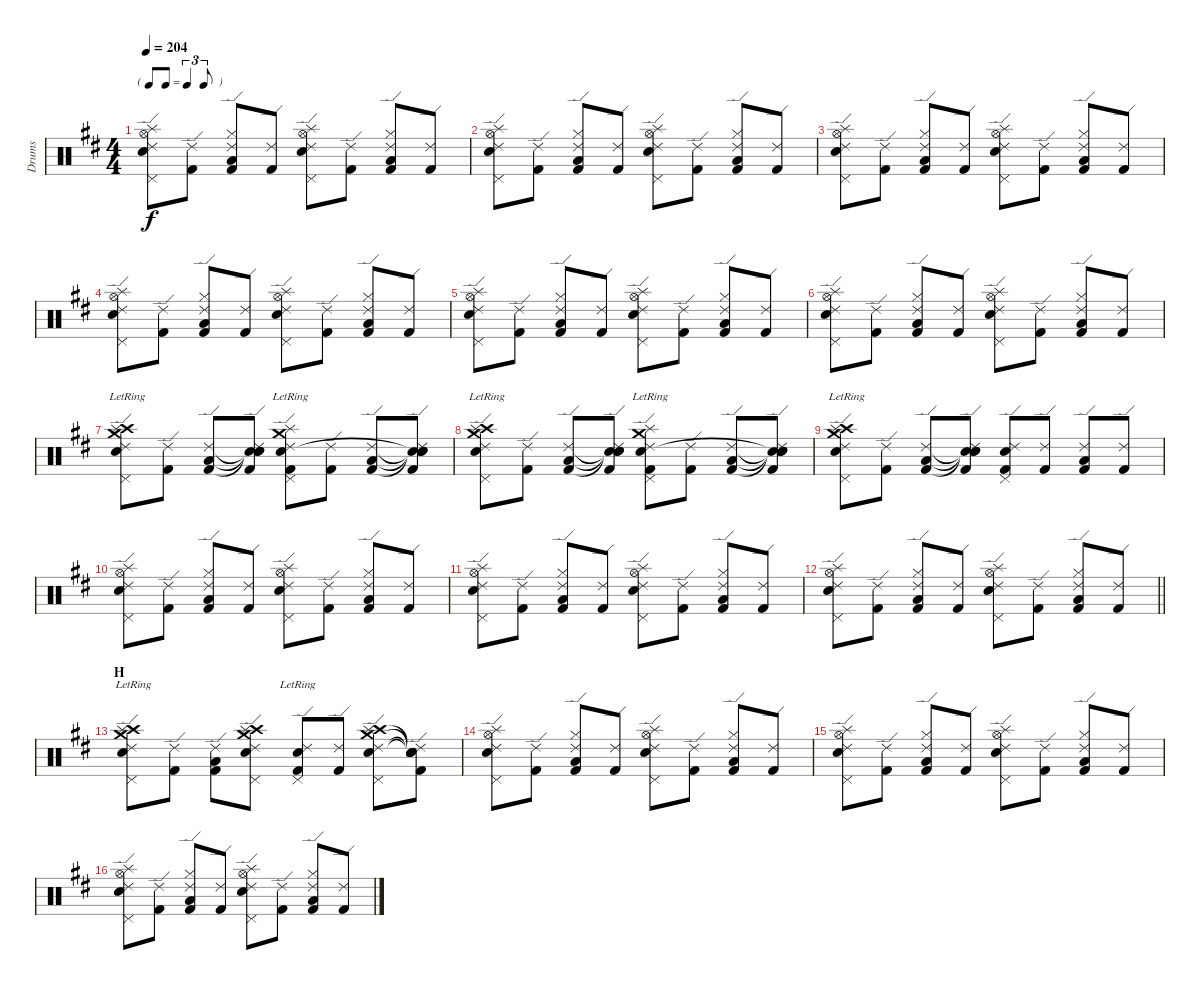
\track ("Drums" "Drums") {instrument percussion}
\staff {score}
\articulation defaults
\ts (4 4)
\tf triplet8th
\tempo 204
\clef neutral
\ks d
("Hi-Hat (open)" "Splash (hit)" "Snare (hit) 2" "Ride (edge) 2" "Pedal Hi-Hat (hit)").8{dy f} ("Kick (hit) 2" "Ride (edge) 2").8 ("Hi-Hat (closed)" "Low Floor Tom (hit)" "Ride (edge) 2" "Kick (hit) 2").8 ("Kick (hit) 2" "Ride (edge) 2").8 ("Hi-Hat (open)" "Splash (hit)" "Snare (hit) 2" "Ride (edge) 2" "Pedal Hi-Hat (hit)").8 ("Kick (hit) 2" "Ride (edge) 2").8 ("Hi-Hat (closed)" "Low Floor Tom (hit)" "Ride (edge) 2" "Kick (hit) 2").8 ("Kick (hit) 2" "Ride (edge) 2").8 |
("Hi-Hat (open)" "Splash (hit)" "Snare (hit) 2" "Ride (edge) 2" "Pedal Hi-Hat (hit)").8 ("Kick (hit) 2" "Ride (edge) 2").8 ("Hi-Hat (closed)" "Low Floor Tom (hit)" "Ride (edge) 2" "Kick (hit) 2").8 ("Kick (hit) 2" "Ride (edge) 2").8 ("Hi-Hat (open)" "Splash (hit)" "Snare (hit) 2" "Ride (edge) 2" "Pedal Hi-Hat (hit)").8 ("Kick (hit) 2" "Ride (edge) 2").8 ("Hi-Hat (closed)" "Low Floor Tom (hit)" "Ride (edge) 2" "Kick (hit) 2").8 ("Kick (hit) 2" "Ride (edge) 2").8 |
("Hi-Hat (open)" "Splash (hit)" "Snare (hit) 2" "Ride (edge) 2" "Pedal Hi-Hat (hit)").8 ("Kick (hit) 2" "Ride (edge) 2").8 ("Hi-Hat (closed)" "Low Floor Tom (hit)" "Ride (edge) 2" "Kick (hit) 2").8 ("Kick (hit) 2" "Ride (edge) 2").8 ("Hi-Hat (open)" "Splash (hit)" "Snare (hit) 2" "Ride (edge) 2" "Pedal Hi-Hat (hit)").8 ("Kick (hit) 2" "Ride (edge) 2").8 ("Hi-Hat (closed)" "Low Floor Tom (hit)" "Ride (edge) 2" "Kick (hit) 2").8 ("Kick (hit) 2" "Ride (edge) 2").8 |
("Hi-Hat (open)" "Splash (hit)" "Snare (hit) 2" "Ride (edge) 2" "Pedal Hi-Hat (hit)").8 ("Kick (hit) 2" "Ride (edge) 2").8 ("Hi-Hat (closed)" "Low Floor Tom (hit)" "Ride (edge) 2" "Kick (hit) 2").8 ("Kick (hit) 2" "Ride (edge) 2").8 ("Hi-Hat (open)" "Splash (hit)" "Snare (hit) 2" "Ride (edge) 2" "Pedal Hi-Hat (hit)").8 ("Kick (hit) 2" "Ride (edge) 2").8 ("Hi-Hat (closed)" "Low Floor Tom (hit)" "Ride (edge) 2" "Kick (hit) 2").8 ("Kick (hit) 2" "Ride (edge) 2").8 |
("Hi-Hat (open)" "Splash (hit)" "Snare (hit) 2" "Ride (edge) 2" "Pedal Hi-Hat (hit)").8 ("Kick (hit) 2" "Ride (edge) 2").8 ("Hi-Hat (closed)" "Low Floor Tom (hit)" "Ride (edge) 2" "Kick (hit) 2").8 ("Kick (hit) 2" "Ride (edge) 2").8 ("Hi-Hat (open)" "Splash (hit)" "Snare (hit) 2" "Ride (edge) 2" "Pedal Hi-Hat (hit)").8 ("Kick (hit) 2" "Ride (edge) 2").8 ("Hi-Hat (closed)" "Low Floor Tom (hit)" "Ride (edge) 2" "Kick (hit) 2").8 ("Kick (hit) 2" "Ride (edge) 2").8 |
("Hi-Hat (open)" "Splash (hit)" "Snare (hit) 2" "Ride (edge) 2" "Pedal Hi-Hat (hit)").8 ("Kick (hit) 2" "Ride (edge) 2").8 ("Hi-Hat (closed)" "Low Floor Tom (hit)" "Ride (edge) 2" "Kick (hit) 2").8 ("Kick (hit) 2" "Ride (edge) 2").8 ("Hi-Hat (open)" "Splash (hit)" "Snare (hit) 2" "Ride (edge) 2" "Pedal Hi-Hat (hit)").8 ("Kick (hit) 2" "Ride (edge) 2").8 ("Hi-Hat (closed)" "Low Floor Tom (hit)" "Ride (edge) 2" "Kick (hit) 2").8 ("Kick (hit) 2" "Ride (edge) 2").8 |
("Ride (edge) 2" "Crash medium (hit)" "Crash high (hit)"{lr} "Pedal Hi-Hat (hit)"{lr} "Splash (hit)"{lr} "Snare (hit) 2"{lr}).8 ("Kick (hit) 2" "Ride (edge) 2").8 ("Low Floor Tom (hit)" "Ride (edge) 2" "Kick (hit) 2").8 ("Snare (hit)"{t} "Snare (hit)"{t} "Snare (hit)"{t} "Kick (hit) 2" "Ride (edge) 2").8 ("Ride (edge) 2"{lr} "Crash medium (hit)"{lr} "Kick (hit) 2"{lr} "Pedal Hi-Hat (hit)"{lr} "Splash (hit)"{lr} "Snare (hit) 2"{lr}).8 ("Kick (hit) 2" "Ride (edge) 2").8 ("Low Floor Tom (hit)" "Ride (edge) 2" "Kick (hit) 2").8 ("Snare (hit)"{t} "Snare (hit)"{t} "Snare (hit)"{t} "Kick (hit) 2" "Ride (edge) 2" "Snare (hit)"{t}).8 |
("Ride (edge) 2" "Crash medium (hit)" "Crash high (hit)"{lr} "Pedal Hi-Hat (hit)"{lr} "Splash (hit)"{lr} "Snare (hit) 2"{lr}).8 ("Kick (hit) 2" "Ride (edge) 2").8 ("Low Floor Tom (hit)" "Ride (edge) 2" "Kick (hit) 2").8 ("Snare (hit)"{t} "Snare (hit)"{t} "Snare (hit)"{t} "Kick (hit) 2" "Ride (edge) 2").8 ("Ride (edge) 2"{lr} "Crash medium (hit)"{lr} "Kick (hit) 2"{lr} "Pedal Hi-Hat (hit)"{lr} "Splash (hit)"{lr} "Snare (hit) 2"{lr}).8 ("Kick (hit) 2" "Ride (edge) 2").8 ("Low Floor Tom (hit)" "Ride (edge) 2" "Kick (hit) 2").8 ("Snare (hit)"{t} "Snare (hit)"{t} "Snare (hit)"{t} "Kick (hit) 2" "Ride (edge) 2" "Snare (hit)"{t}).8 |
("Ride (edge) 2" "Crash medium (hit)" "Crash high (hit)"{lr} "Pedal Hi-Hat (hit)"{lr} "Splash (hit)"{lr} "Snare (hit) 2"{lr}).8 ("Kick (hit) 2" "Ride (edge) 2").8 ("Low Floor Tom (hit)" "Ride (edge) 2" "Kick (hit) 2").8 ("Snare (hit)"{t} "Snare (hit)"{t} "Snare (hit)"{t} "Kick (hit) 2" "Ride (edge) 2").8 ("Kick (hit) 2" "Snare (hit) 2" "Ride (edge) 2" "Pedal Hi-Hat (hit)").8 ("Kick (hit) 2" "Ride (edge) 2").8 ("Low Floor Tom (hit)" "Ride (edge) 2" "Kick (hit) 2").8 ("Kick (hit) 2" "Ride (edge) 2").8 |
("Hi-Hat (open)" "Splash (hit)" "Snare (hit) 2" "Ride (edge) 2" "Pedal Hi-Hat (hit)").8 ("Kick (hit) 2" "Ride (edge) 2").8 ("Hi-Hat (closed)" "Low Floor Tom (hit)" "Ride (edge) 2" "Kick (hit) 2").8 ("Kick (hit) 2" "Ride (edge) 2").8 ("Hi-Hat (open)" "Splash (hit)" "Snare (hit) 2" "Ride (edge) 2" "Pedal Hi-Hat (hit)").8 ("Kick (hit) 2" "Ride (edge) 2").8 ("Hi-Hat (closed)" "Low Floor Tom (hit)" "Ride (edge) 2" "Kick (hit) 2").8 ("Kick (hit) 2" "Ride (edge) 2").8 |
("Hi-Hat (open)" "Splash (hit)" "Snare (hit) 2" "Ride (edge) 2" "Pedal Hi-Hat (hit)").8 ("Kick (hit) 2" "Ride (edge) 2").8 ("Hi-Hat (closed)" "Low Floor Tom (hit)" "Ride (edge) 2" "Kick (hit) 2").8 ("Kick (hit) 2" "Ride (edge) 2").8 ("Hi-Hat (open)" "Splash (hit)" "Snare (hit) 2" "Ride (edge) 2" "Pedal Hi-Hat (hit)").8 ("Kick (hit) 2" "Ride (edge) 2").8 ("Hi-Hat (closed)" "Low Floor Tom (hit)" "Ride (edge) 2" "Kick (hit) 2").8 ("Kick (hit) 2" "Ride (edge) 2").8 |
\barLineRight lightlight
("Hi-Hat (open)" "Splash (hit)" "Snare (hit) 2" "Ride (edge) 2" "Pedal Hi-Hat (hit)").8 ("Kick (hit) 2" "Ride (edge) 2").8 ("Hi-Hat (closed)" "Low Floor Tom (hit)" "Ride (edge) 2" "Kick (hit) 2").8 ("Kick (hit) 2" "Ride (edge) 2").8 ("Hi-Hat (open)" "Splash (hit)" "Snare (hit) 2" "Ride (edge) 2" "Pedal Hi-Hat (hit)").8 ("Kick (hit) 2" "Ride (edge) 2").8 ("Hi-Hat (closed)" "Low Floor Tom (hit)" "Ride (edge) 2" "Kick (hit) 2").8 ("Kick (hit) 2" "Ride (edge) 2").8 |
\section ("" "H")
("Ride (edge) 2" "Crash medium (hit)" "Crash high (hit)"{lr} "Pedal Hi-Hat (hit)"{lr} "Splash (hit)"{lr} "Snare (hit) 2"{lr}).8 ("Kick (hit) 2" "Ride (edge) 2").8 ("Low Floor Tom (hit)" "Ride (edge) 2" "Kick (hit) 2").8 ("Ride (edge) 2" "Crash medium (hit)" "Crash high (hit)" "Pedal Hi-Hat (hit)" "Splash (hit)" "Snare (hit) 2").8 ("Kick (hit) 2"{lr} "Snare (hit) 2"{lr} "Ride (edge) 2"{lr} "Pedal Hi-Hat (hit)"{lr}).8 ("Kick (hit) 2" "Ride (edge) 2").8 ("Ride (edge) 2" "Crash medium (hit)" "Crash high (hit)" "Pedal Hi-Hat (hit)" "Splash (hit)" "Snare (hit) 2").8 ("Snare (hit)"{t} "Snare (hit)"{t} "Snare (hit)"{t} "Kick (hit) 2" "Ride (edge) 2" "Snare (hit)"{t}).8 |
("Hi-Hat (open)" "Splash (hit)" "Snare (hit) 2" "Ride (edge) 2" "Pedal Hi-Hat (hit)").8 ("Kick (hit) 2" "Ride (edge) 2").8 ("Hi-Hat (closed)" "Low Floor Tom (hit)" "Ride (edge) 2" "Kick (hit) 2").8 ("Kick (hit) 2" "Ride (edge) 2").8 ("Hi-Hat (open)" "Splash (hit)" "Snare (hit) 2" "Ride (edge) 2" "Pedal Hi-Hat (hit)").8 ("Kick (hit) 2" "Ride (edge) 2").8 ("Hi-Hat (closed)" "Low Floor Tom (hit)" "Ride (edge) 2" "Kick (hit) 2").8 ("Kick (hit) 2" "Ride (edge) 2").8 |
("Hi-Hat (open)" "Splash (hit)" "Snare (hit) 2" "Ride (edge) 2" "Pedal Hi-Hat (hit)").8 ("Kick (hit) 2" "Ride (edge) 2").8 ("Hi-Hat (closed)" "Low Floor Tom (hit)" "Ride (edge) 2" "Kick (hit) 2").8 ("Kick (hit) 2" "Ride (edge) 2").8 ("Hi-Hat (open)" "Splash (hit)" "Snare (hit) 2" "Ride (edge) 2" "Pedal Hi-Hat (hit)").8 ("Kick (hit) 2" "Ride (edge) 2").8 ("Hi-Hat (closed)" "Low Floor Tom (hit)" "Ride (edge) 2" "Kick (hit) 2").8 ("Kick (hit) 2" "Ride (edge) 2").8 |
("Hi-Hat (open)" "Splash (hit)" "Snare (hit) 2" "Ride (edge) 2" "Pedal Hi-Hat (hit)").8 ("Kick (hit) 2" "Ride (edge) 2").8 ("Hi-Hat (closed)" "Low Floor Tom (hit)" "Ride (edge) 2" "Kick (hit) 2").8 ("Kick (hit) 2" "Ride (edge) 2").8 ("Hi-Hat (open)" "Splash (hit)" "Snare (hit) 2" "Ride (edge) 2" "Pedal Hi-Hat (hit)").8 ("Kick (hit) 2" "Ride (edge) 2").8 ("Hi-Hat (closed)" "Low Floor Tom (hit)" "Ride (edge) 2" "Kick (hit) 2").8 ("Kick (hit) 2" "Ride (edge) 2").8
